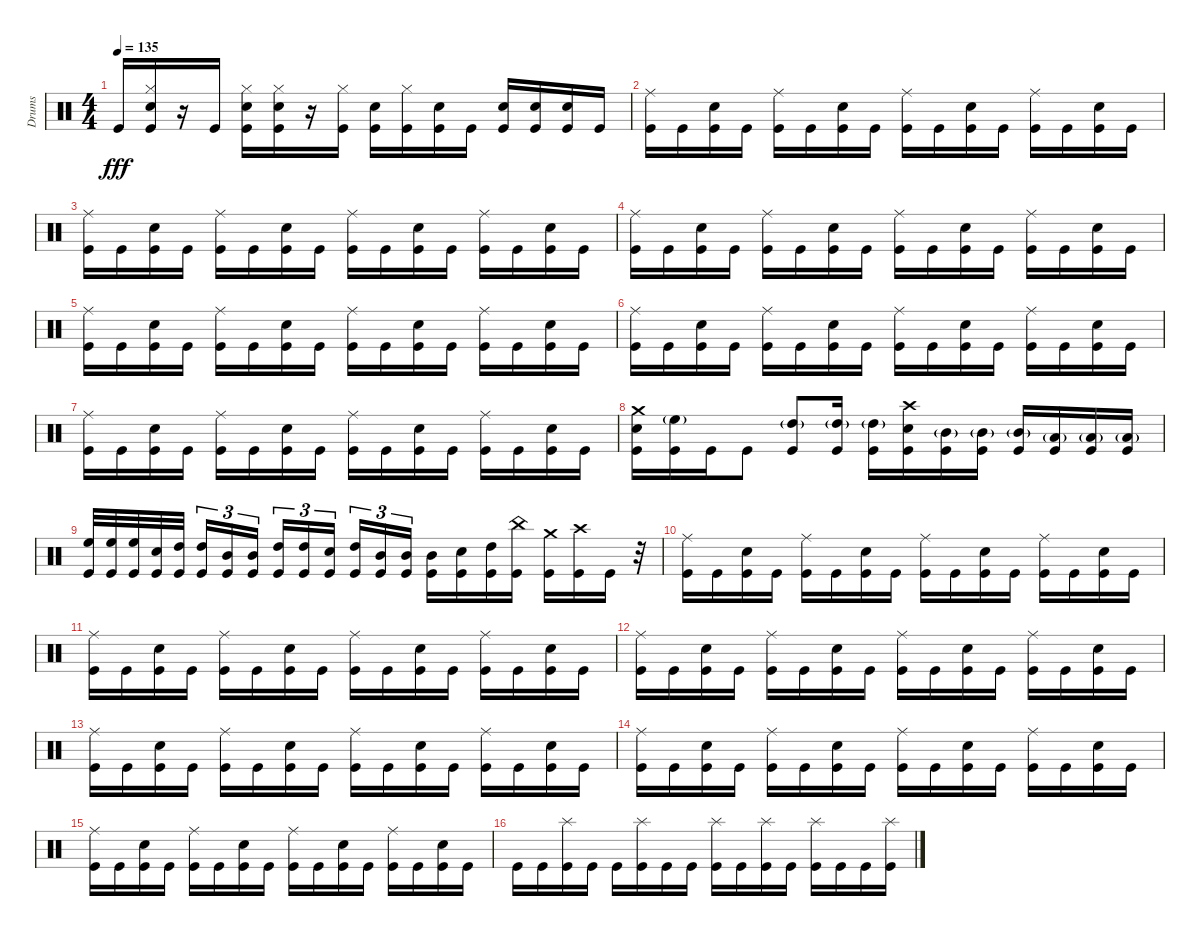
\track ("Drums" "Drums") {instrument percussion}
\staff {score}
\articulation defaults
\ts (4 4)
\tempo 135
\clef neutral
\ks c "Kick (hit)".16{dy fff}
("Hi-Hat (closed)" "Electric Snare (hit)" "Kick (hit)").16 r.16 "Kick (hit)".16 ("Hi-Hat (closed)" "Electric Snare (hit)" "Kick (hit)").16 ("Hi-Hat (closed)" "Electric Snare (hit)" "Kick (hit)").16 r.16 ("Hi-Hat (closed)" "Kick (hit)").16 ("Electric Snare (hit)" "Kick (hit)").16 ("Hi-Hat (closed)" "Kick (hit)").16 ("Electric Snare (hit)" "Kick (hit)").16 "Kick (hit)".16 ("Electric Snare (hit)" "Kick (hit)").16 ("Electric Snare (hit)" "Kick (hit)").16 ("Electric Snare (hit)" "Kick (hit)").16 "Kick (hit)".16 |
("Ride (middle)" "Kick (hit)").16 "Kick (hit)".16 ("Electric Snare (hit)" "Kick (hit)").16 "Kick (hit)".16 ("Ride (middle)" "Kick (hit)").16 "Kick (hit)".16 ("Electric Snare (hit)" "Kick (hit)").16 "Kick (hit)".16 ("Ride (middle)" "Kick (hit)").16 "Kick (hit)".16 ("Electric Snare (hit)" "Kick (hit)").16 "Kick (hit)".16 ("Ride (middle)" "Kick (hit)").16 "Kick (hit)".16 ("Electric Snare (hit)" "Kick (hit)").16 "Kick (hit)".16 |
("Ride (middle)" "Kick (hit)").16 "Kick (hit)".16 ("Electric Snare (hit)" "Kick (hit)").16 "Kick (hit)".16 ("Ride (middle)" "Kick (hit)").16 "Kick (hit)".16 ("Electric Snare (hit)" "Kick (hit)").16 "Kick (hit)".16 ("Ride (middle)" "Kick (hit)").16 "Kick (hit)".16 ("Electric Snare (hit)" "Kick (hit)").16 "Kick (hit)".16 ("Ride (middle)" "Kick (hit)").16 "Kick (hit)".16 ("Electric Snare (hit)" "Kick (hit)").16 "Kick (hit)".16 |
("Ride (middle)" "Kick (hit)").16 "Kick (hit)".16 ("Electric Snare (hit)" "Kick (hit)").16 "Kick (hit)".16 ("Ride (middle)" "Kick (hit)").16 "Kick (hit)".16 ("Electric Snare (hit)" "Kick (hit)").16 "Kick (hit)".16 ("Ride (middle)" "Kick (hit)").16 "Kick (hit)".16 ("Electric Snare (hit)" "Kick (hit)").16 "Kick (hit)".16 ("Ride (middle)" "Kick (hit)").16 "Kick (hit)".16 ("Electric Snare (hit)" "Kick (hit)").16 "Kick (hit)".16 |
("Ride (middle)" "Kick (hit)").16 "Kick (hit)".16 ("Electric Snare (hit)" "Kick (hit)").16 "Kick (hit)".16 ("Ride (middle)" "Kick (hit)").16 "Kick (hit)".16 ("Electric Snare (hit)" "Kick (hit)").16 "Kick (hit)".16 ("Ride (middle)" "Kick (hit)").16 "Kick (hit)".16 ("Electric Snare (hit)" "Kick (hit)").16 "Kick (hit)".16 ("Ride (middle)" "Kick (hit)").16 "Kick (hit)".16 ("Electric Snare (hit)" "Kick (hit)").16 "Kick (hit)".16 |
("Ride (middle)" "Kick (hit)").16 "Kick (hit)".16 ("Electric Snare (hit)" "Kick (hit)").16 "Kick (hit)".16 ("Ride (middle)" "Kick (hit)").16 "Kick (hit)".16 ("Electric Snare (hit)" "Kick (hit)").16 "Kick (hit)".16 ("Ride (middle)" "Kick (hit)").16 "Kick (hit)".16 ("Electric Snare (hit)" "Kick (hit)").16 "Kick (hit)".16 ("Ride (middle)" "Kick (hit)").16 "Kick (hit)".16 ("Electric Snare (hit)" "Kick (hit)").16 "Kick (hit)".16 |
("Ride (middle)" "Kick (hit)").16 "Kick (hit)".16 ("Electric Snare (hit)" "Kick (hit)").16 "Kick (hit)".16 ("Ride (middle)" "Kick (hit)").16 "Kick (hit)".16 ("Electric Snare (hit)" "Kick (hit)").16 "Kick (hit)".16 ("Ride (middle)" "Kick (hit)").16 "Kick (hit)".16 ("Electric Snare (hit)" "Kick (hit)").16 "Kick (hit)".16 ("Ride (middle)" "Kick (hit)").16 "Kick (hit)".16 ("Electric Snare (hit)" "Kick (hit)").16 "Kick (hit)".16 |
("Crash medium (hit)" "Electric Snare (hit)" "Kick (hit)").16 ("High Floor Tom (hit)"{g} "Kick (hit)").16 "Kick (hit)".16 "Kick (hit)".8 ("High Tom (hit)"{g} "Kick (hit)").8 ("High Tom (hit)"{g} "Kick (hit)").16 ("High Tom (hit)"{g} "Kick (hit)").16 ("Crash high (hit)" "Electric Snare (hit)" "Kick (hit)").16 ("Mid Tom (hit)"{g} "Kick (hit)").16 ("Mid Tom (hit)"{g} "Kick (hit)").16 ("Mid Tom (hit)"{g} "Kick (hit)").16 ("Low Tom (hit)"{g} "Kick (hit)").16 ("Low Tom (hit)"{g} "Kick (hit)").16 ("Low Tom (hit)"{g} "Kick (hit)").16 |
("High Floor Tom (hit)" "Kick (hit)").32 ("High Floor Tom (hit)" "Kick (hit)").32 ("High Floor Tom (hit)" "Kick (hit)").32 ("Electric Snare (hit)" "Kick (hit)").32 ("High Tom (hit)" "Kick (hit)").32{beam splitsecondary} ("High Tom (hit)" "Kick (hit)").16{tu (3 2)} ("Mid Tom (hit)" "Kick (hit)").16{tu (3 2)} ("Mid Tom (hit)" "Kick (hit)").16{tu (3 2)} ("High Tom (hit)" "Kick (hit)").16{tu (3 2)} ("High Tom (hit)" "Kick (hit)").16{tu (3 2)} ("Electric Snare (hit)" "Kick (hit)").16{tu (3 2) beam splitsecondary} ("High Tom (hit)" "Kick (hit)").16{tu (3 2)} ("Mid Tom (hit)" "Kick (hit)").16{tu (3 2)} ("Mid Tom (hit)" "Kick (hit)").16{tu (3 2)} ("Mid Tom (hit)" "Kick (hit)").16 ("Electric Snare (hit)" "Kick (hit)").16 ("High Tom (hit)" "Kick (hit)").16 ("China (hit)" "Kick (hit)").16 ("Crash medium (hit)" "Kick (hit)").16 ("Crash high (hit)" "Kick (hit)").16 "Kick (hit)".16 r.32 |
("Ride (middle)" "Kick (hit)").16 "Kick (hit)".16 ("Electric Snare (hit)" "Kick (hit)").16 "Kick (hit)".16 ("Ride (middle)" "Kick (hit)").16 "Kick (hit)".16 ("Electric Snare (hit)" "Kick (hit)").16 "Kick (hit)".16 ("Ride (middle)" "Kick (hit)").16 "Kick (hit)".16 ("Electric Snare (hit)" "Kick (hit)").16 "Kick (hit)".16 ("Ride (middle)" "Kick (hit)").16 "Kick (hit)".16 ("Electric Snare (hit)" "Kick (hit)").16 "Kick (hit)".16 |
("Ride (middle)" "Kick (hit)").16 "Kick (hit)".16 ("Electric Snare (hit)" "Kick (hit)").16 "Kick (hit)".16 ("Ride (middle)" "Kick (hit)").16 "Kick (hit)".16 ("Electric Snare (hit)" "Kick (hit)").16 "Kick (hit)".16 ("Ride (middle)" "Kick (hit)").16 "Kick (hit)".16 ("Electric Snare (hit)" "Kick (hit)").16 "Kick (hit)".16 ("Ride (middle)" "Kick (hit)").16 "Kick (hit)".16 ("Electric Snare (hit)" "Kick (hit)").16 "Kick (hit)".16 |
("Ride (middle)" "Kick (hit)").16 "Kick (hit)".16 ("Electric Snare (hit)" "Kick (hit)").16 "Kick (hit)".16 ("Ride (middle)" "Kick (hit)").16 "Kick (hit)".16 ("Electric Snare (hit)" "Kick (hit)").16 "Kick (hit)".16 ("Ride (middle)" "Kick (hit)").16 "Kick (hit)".16 ("Electric Snare (hit)" "Kick (hit)").16 "Kick (hit)".16 ("Ride (middle)" "Kick (hit)").16 "Kick (hit)".16 ("Electric Snare (hit)" "Kick (hit)").16 "Kick (hit)".16 |
("Ride (middle)" "Kick (hit)").16 "Kick (hit)".16 ("Electric Snare (hit)" "Kick (hit)").16 "Kick (hit)".16 ("Ride (middle)" "Kick (hit)").16 "Kick (hit)".16 ("Electric Snare (hit)" "Kick (hit)").16 "Kick (hit)".16 ("Ride (middle)" "Kick (hit)").16 "Kick (hit)".16 ("Electric Snare (hit)" "Kick (hit)").16 "Kick (hit)".16 ("Ride (middle)" "Kick (hit)").16 "Kick (hit)".16 ("Electric Snare (hit)" "Kick (hit)").16 "Kick (hit)".16 |
("Ride (middle)" "Kick (hit)").16 "Kick (hit)".16 ("Electric Snare (hit)" "Kick (hit)").16 "Kick (hit)".16 ("Ride (middle)" "Kick (hit)").16 "Kick (hit)".16 ("Electric Snare (hit)" "Kick (hit)").16 "Kick (hit)".16 ("Ride (middle)" "Kick (hit)").16 "Kick (hit)".16 ("Electric Snare (hit)" "Kick (hit)").16 "Kick (hit)".16 ("Ride (middle)" "Kick (hit)").16 "Kick (hit)".16 ("Electric Snare (hit)" "Kick (hit)").16 "Kick (hit)".16 |
("Ride (middle)" "Kick (hit)").16 "Kick (hit)".16 ("Electric Snare (hit)" "Kick (hit)").16 "Kick (hit)".16 ("Ride (middle)" "Kick (hit)").16 "Kick (hit)".16 ("Electric Snare (hit)" "Kick (hit)").16 "Kick (hit)".16 ("Ride (middle)" "Kick (hit)").16 "Kick (hit)".16 ("Electric Snare (hit)" "Kick (hit)").16 "Kick (hit)".16 ("Ride (middle)" "Kick (hit)").16 "Kick (hit)".16 ("Electric Snare (hit)" "Kick (hit)").16 "Kick (hit)".16 |
"Kick (hit)".16 "Kick (hit)".16 ("Splash (hit)" "Kick (hit)").16 "Kick (hit)".16 "Kick (hit)".16 ("Splash (hit)" "Kick (hit)").16 "Kick (hit)".16 "Kick (hit)".16 ("Splash (hit)" "Kick (hit)").16 "Kick (hit)".16 ("Splash (hit)" "Kick (hit)").16 "Kick (hit)".16 ("Splash (hit)" "Kick (hit)").16 "Kick (hit)".16 "Kick (hit)".16 ("Splash (hit)" "Kick (hit)").16
